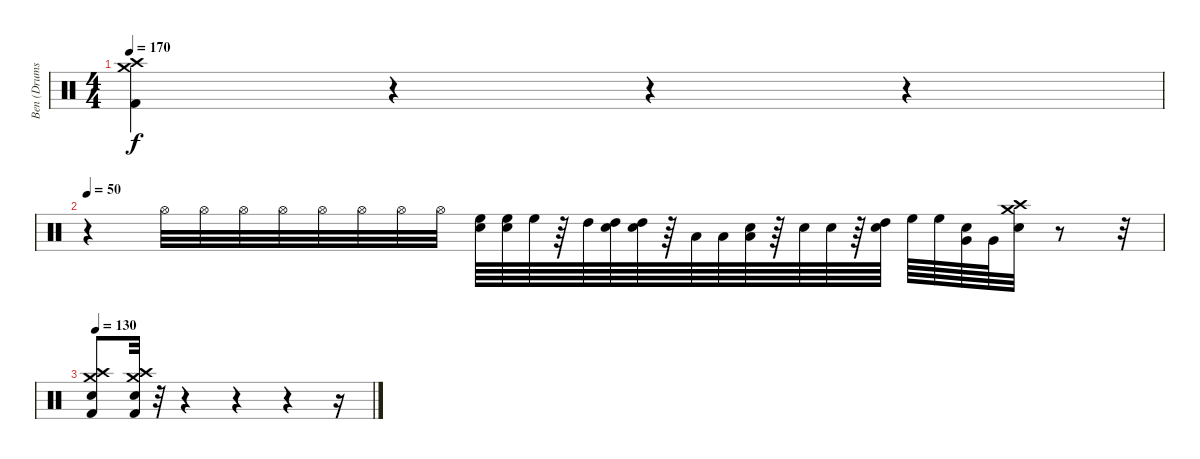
\track ("Ben (Drums)" "Ben (Drums") {instrument percussion}
\staff {score}
\articulation defaults
\ts (4 4)
\tempo 170
\clef neutral
\ks c
("Kick (hit) 2" "Crash medium (hit)" "Crash high (hit)").4{dy f} r.4 r.4 r.4 |
\tempo 50
r.4 "Hi-Hat (open)".32{volume 16} "Hi-Hat (open)".32 "Hi-Hat (open)".32 "Hi-Hat (open)".32 "Hi-Hat (open)".32 "Hi-Hat (open)".32 "Hi-Hat (open)".32 "Hi-Hat (open)".32 ("High Floor Tom (hit)" "Snare (hit) 2").64 ("High Floor Tom (hit)" "Snare (hit) 2").64 "High Floor Tom (hit)".64 r.64 "High Tom (hit)".64 ("High Tom (hit)" "Snare (hit) 2").64 ("High Tom (hit)" "Snare (hit) 2").64 r.64 "Low Tom (hit)".64 "Low Tom (hit)".64 ("Low Tom (hit)" "Snare (hit) 2").64 r.64 "Snare (hit) 2".64 "Snare (hit) 2".64 r.64 ("Snare (hit) 2" "High Tom (hit)").64 "High Floor Tom (hit)".64 "High Floor Tom (hit)".64 ("Snare (hit) 2" "Very Low Tom (hit)").64 "Very Low Tom (hit)".64 ("Snare (hit) 2" "Crash medium (hit)" "Crash high (hit)").32 r.8 r.32 |
\tempo 130
("Kick (hit) 2" "Snare (hit) 2" "Crash medium (hit)" "Crash high (hit)").8{volume 12} ("Kick (hit) 2" "Snare (hit) 2" "Crash medium (hit)" "Crash high (hit)").32 r.32 r.4 r.4 r.4 r.16
